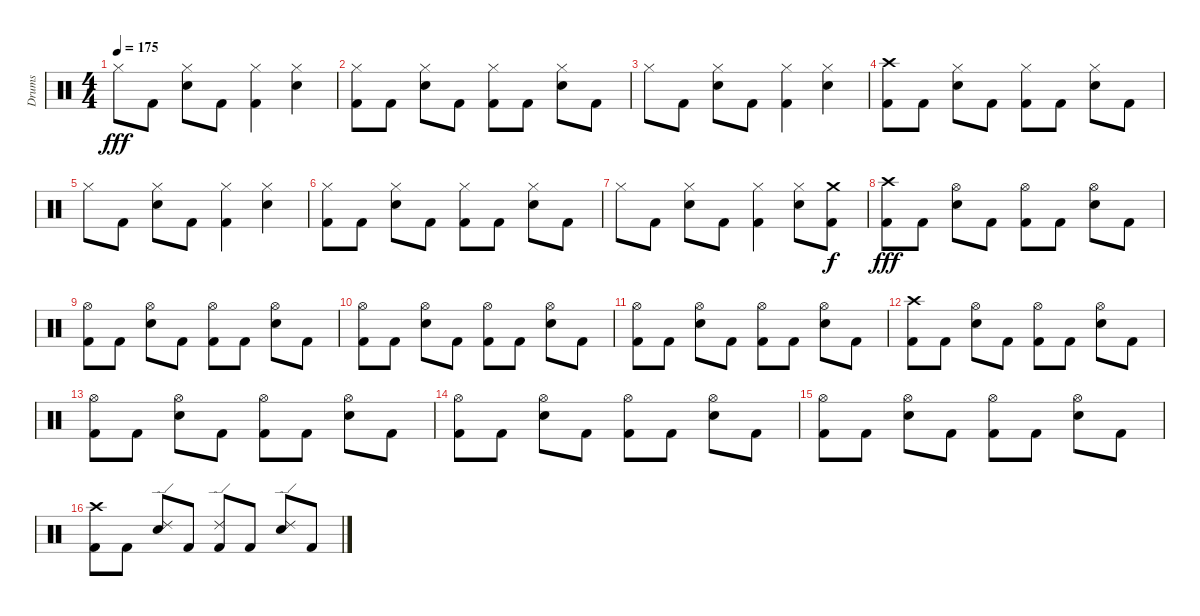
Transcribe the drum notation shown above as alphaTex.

\track ("Drums" "Drums") {instrument percussion}
\staff {score}
\articulation defaults
\ts (4 4)
\tempo 175
\clef neutral
\ks c "Hi-Hat (closed)".8{dy fff} "Kick (hit) 2".8
("Electric Snare (hit)" "Hi-Hat (closed)").8 "Kick (hit) 2".8 ("Kick (hit) 2" "Hi-Hat (closed)").4 ("Electric Snare (hit)" "Hi-Hat (closed)").4 |
("Kick (hit) 2" "Hi-Hat (closed)").8 "Kick (hit) 2".8 ("Electric Snare (hit)" "Hi-Hat (closed)").8 "Kick (hit) 2".8 ("Kick (hit) 2" "Hi-Hat (closed)").8 "Kick (hit) 2".8 ("Electric Snare (hit)" "Hi-Hat (closed)").8 "Kick (hit) 2".8 |
"Hi-Hat (closed)".8 "Kick (hit) 2".8 ("Electric Snare (hit)" "Hi-Hat (closed)").8 "Kick (hit) 2".8 ("Kick (hit) 2" "Hi-Hat (closed)").4 ("Electric Snare (hit)" "Hi-Hat (closed)").4 |
("Kick (hit) 2" "Crash high (hit)").8 "Kick (hit) 2".8 ("Electric Snare (hit)" "Hi-Hat (closed)").8 "Kick (hit) 2".8 ("Kick (hit) 2" "Hi-Hat (closed)").8 "Kick (hit) 2".8 ("Electric Snare (hit)" "Hi-Hat (closed)").8 "Kick (hit) 2".8 |
"Hi-Hat (closed)".8 "Kick (hit) 2".8 ("Electric Snare (hit)" "Hi-Hat (closed)").8 "Kick (hit) 2".8 ("Kick (hit) 2" "Hi-Hat (closed)").4 ("Electric Snare (hit)" "Hi-Hat (closed)").4 |
("Kick (hit) 2" "Hi-Hat (closed)").8 "Kick (hit) 2".8 ("Electric Snare (hit)" "Hi-Hat (closed)").8 "Kick (hit) 2".8 ("Kick (hit) 2" "Hi-Hat (closed)").8 "Kick (hit) 2".8 ("Electric Snare (hit)" "Hi-Hat (closed)").8 "Kick (hit) 2".8 |
"Hi-Hat (closed)".8 "Kick (hit) 2".8 ("Electric Snare (hit)" "Hi-Hat (closed)").8 "Kick (hit) 2".8 ("Kick (hit) 2" "Hi-Hat (closed)").4 ("Electric Snare (hit)" "Hi-Hat (closed)").8 ("Kick (hit) 2" "Crash medium (hit)").8{dy f} |
("Kick (hit) 2" "Crash high (hit)").8{dy fff} "Kick (hit) 2".8 ("Electric Snare (hit)" "Hi-Hat (open)").8 "Kick (hit) 2".8 ("Kick (hit) 2" "Hi-Hat (open)").8 "Kick (hit) 2".8 ("Electric Snare (hit)" "Hi-Hat (open)").8 "Kick (hit) 2".8 |
("Kick (hit) 2" "Hi-Hat (open)").8 "Kick (hit) 2".8 ("Electric Snare (hit)" "Hi-Hat (open)").8 "Kick (hit) 2".8 ("Kick (hit) 2" "Hi-Hat (open)").8 "Kick (hit) 2".8 ("Electric Snare (hit)" "Hi-Hat (open)").8 "Kick (hit) 2".8 |
("Kick (hit) 2" "Hi-Hat (open)").8 "Kick (hit) 2".8 ("Electric Snare (hit)" "Hi-Hat (open)").8 "Kick (hit) 2".8 ("Kick (hit) 2" "Hi-Hat (open)").8 "Kick (hit) 2".8 ("Electric Snare (hit)" "Hi-Hat (open)").8 "Kick (hit) 2".8 |
("Kick (hit) 2" "Hi-Hat (open)").8 "Kick (hit) 2".8 ("Electric Snare (hit)" "Hi-Hat (open)").8 "Kick (hit) 2".8 ("Kick (hit) 2" "Hi-Hat (open)").8 "Kick (hit) 2".8 ("Electric Snare (hit)" "Hi-Hat (open)").8 "Kick (hit) 2".8 |
("Kick (hit) 2" "Crash high (hit)").8 "Kick (hit) 2".8 ("Electric Snare (hit)" "Hi-Hat (open)").8 "Kick (hit) 2".8 ("Kick (hit) 2" "Hi-Hat (open)").8 "Kick (hit) 2".8 ("Electric Snare (hit)" "Hi-Hat (open)").8 "Kick (hit) 2".8 |
("Kick (hit) 2" "Hi-Hat (open)").8 "Kick (hit) 2".8 ("Electric Snare (hit)" "Hi-Hat (open)").8 "Kick (hit) 2".8 ("Kick (hit) 2" "Hi-Hat (open)").8 "Kick (hit) 2".8 ("Electric Snare (hit)" "Hi-Hat (open)").8 "Kick (hit) 2".8 |
("Kick (hit) 2" "Hi-Hat (open)").8 "Kick (hit) 2".8 ("Electric Snare (hit)" "Hi-Hat (open)").8 "Kick (hit) 2".8 ("Kick (hit) 2" "Hi-Hat (open)").8 "Kick (hit) 2".8 ("Electric Snare (hit)" "Hi-Hat (open)").8 "Kick (hit) 2".8 |
("Kick (hit) 2" "Hi-Hat (open)").8 "Kick (hit) 2".8 ("Electric Snare (hit)" "Hi-Hat (open)").8 "Kick (hit) 2".8 ("Kick (hit) 2" "Hi-Hat (open)").8 "Kick (hit) 2".8 ("Electric Snare (hit)" "Hi-Hat (open)").8 "Kick (hit) 2".8 |
("Kick (hit) 2" "Crash high (hit)").8 "Kick (hit) 2".8 ("Electric Snare (hit)" "Ride (edge) 2").8 "Kick (hit) 2".8 ("Kick (hit) 2" "Ride (edge) 2").8 "Kick (hit) 2".8 ("Electric Snare (hit)" "Ride (edge) 2").8 "Kick (hit) 2".8
